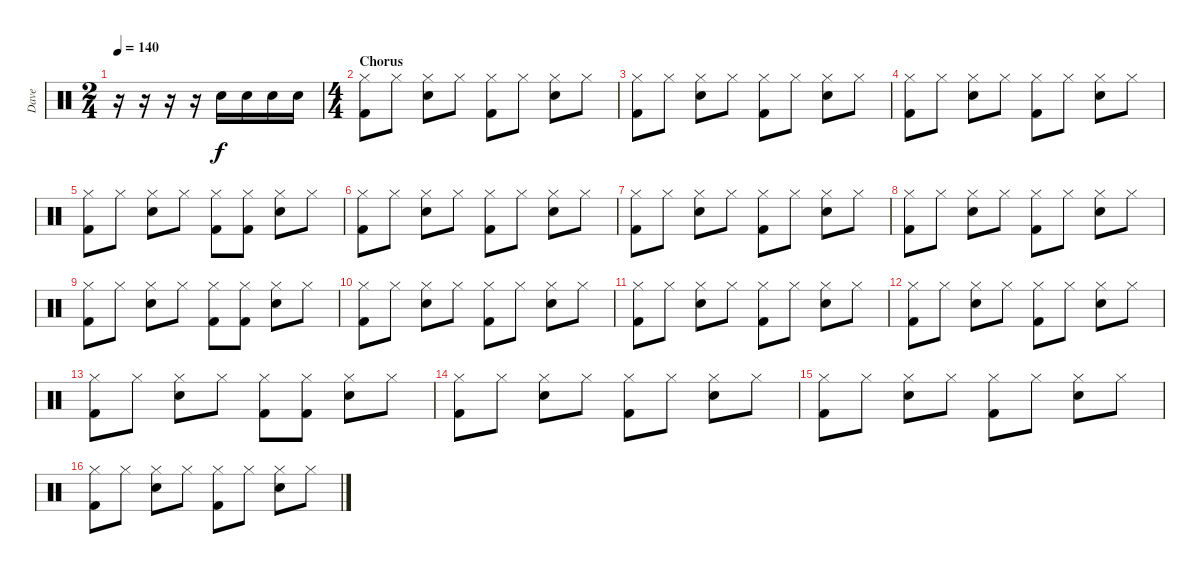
\track ("Dave" "Dave") {instrument percussion}
\staff {score}
\articulation defaults
\ts (2 4)
\tempo 140
\clef neutral
\ks c
r.16{dy f} r.16 r.16 r.16 "Snare (hit) 2".16 "Snare (hit) 2".16 "Snare (hit) 2".16 "Snare (hit) 2".16 |
\ts (4 4)
\section ("" "Chorus")
("Hi-Hat (closed)" "Kick (hit) 2").8 "Hi-Hat (closed)".8 ("Hi-Hat (closed)" "Electric Snare (hit)").8 "Hi-Hat (closed)".8 ("Hi-Hat (closed)" "Kick (hit) 2").8 "Hi-Hat (closed)".8 ("Hi-Hat (closed)" "Electric Snare (hit)").8 "Hi-Hat (closed)".8 |
("Hi-Hat (closed)" "Kick (hit) 2").8 "Hi-Hat (closed)".8 ("Hi-Hat (closed)" "Electric Snare (hit)").8 "Hi-Hat (closed)".8 ("Hi-Hat (closed)" "Kick (hit) 2").8 "Hi-Hat (closed)".8 ("Hi-Hat (closed)" "Electric Snare (hit)").8 "Hi-Hat (closed)".8 |
("Hi-Hat (closed)" "Kick (hit) 2").8 "Hi-Hat (closed)".8 ("Hi-Hat (closed)" "Electric Snare (hit)").8 "Hi-Hat (closed)".8 ("Hi-Hat (closed)" "Kick (hit) 2").8 "Hi-Hat (closed)".8 ("Hi-Hat (closed)" "Electric Snare (hit)").8 "Hi-Hat (closed)".8 |
("Hi-Hat (closed)" "Kick (hit) 2").8 "Hi-Hat (closed)".8 ("Hi-Hat (closed)" "Electric Snare (hit)").8 "Hi-Hat (closed)".8 ("Hi-Hat (closed)" "Kick (hit) 2").8 ("Hi-Hat (closed)" "Kick (hit) 2").8 ("Hi-Hat (closed)" "Electric Snare (hit)").8 "Hi-Hat (closed)".8 |
("Hi-Hat (closed)" "Kick (hit) 2").8 "Hi-Hat (closed)".8 ("Hi-Hat (closed)" "Electric Snare (hit)").8 "Hi-Hat (closed)".8 ("Hi-Hat (closed)" "Kick (hit) 2").8 "Hi-Hat (closed)".8 ("Hi-Hat (closed)" "Electric Snare (hit)").8 "Hi-Hat (closed)".8 |
("Hi-Hat (closed)" "Kick (hit) 2").8 "Hi-Hat (closed)".8 ("Hi-Hat (closed)" "Electric Snare (hit)").8 "Hi-Hat (closed)".8 ("Hi-Hat (closed)" "Kick (hit) 2").8 "Hi-Hat (closed)".8 ("Hi-Hat (closed)" "Electric Snare (hit)").8 "Hi-Hat (closed)".8 |
("Hi-Hat (closed)" "Kick (hit) 2").8 "Hi-Hat (closed)".8 ("Hi-Hat (closed)" "Electric Snare (hit)").8 "Hi-Hat (closed)".8 ("Hi-Hat (closed)" "Kick (hit) 2").8 "Hi-Hat (closed)".8 ("Hi-Hat (closed)" "Electric Snare (hit)").8 "Hi-Hat (closed)".8 |
("Hi-Hat (closed)" "Kick (hit) 2").8 "Hi-Hat (closed)".8 ("Hi-Hat (closed)" "Electric Snare (hit)").8 "Hi-Hat (closed)".8 ("Hi-Hat (closed)" "Kick (hit) 2").8 ("Hi-Hat (closed)" "Kick (hit) 2").8 ("Hi-Hat (closed)" "Electric Snare (hit)").8 "Hi-Hat (closed)".8 |
("Hi-Hat (closed)" "Kick (hit) 2").8 "Hi-Hat (closed)".8 ("Hi-Hat (closed)" "Electric Snare (hit)").8 "Hi-Hat (closed)".8 ("Hi-Hat (closed)" "Kick (hit) 2").8 "Hi-Hat (closed)".8 ("Hi-Hat (closed)" "Electric Snare (hit)").8 "Hi-Hat (closed)".8 |
("Hi-Hat (closed)" "Kick (hit) 2").8 "Hi-Hat (closed)".8 ("Hi-Hat (closed)" "Electric Snare (hit)").8 "Hi-Hat (closed)".8 ("Hi-Hat (closed)" "Kick (hit) 2").8 "Hi-Hat (closed)".8 ("Hi-Hat (closed)" "Electric Snare (hit)").8 "Hi-Hat (closed)".8 |
("Hi-Hat (closed)" "Kick (hit) 2").8 "Hi-Hat (closed)".8 ("Hi-Hat (closed)" "Electric Snare (hit)").8 "Hi-Hat (closed)".8 ("Hi-Hat (closed)" "Kick (hit) 2").8 "Hi-Hat (closed)".8 ("Hi-Hat (closed)" "Electric Snare (hit)").8 "Hi-Hat (closed)".8 |
("Hi-Hat (closed)" "Kick (hit) 2").8 "Hi-Hat (closed)".8 ("Hi-Hat (closed)" "Electric Snare (hit)").8 "Hi-Hat (closed)".8 ("Hi-Hat (closed)" "Kick (hit) 2").8 ("Hi-Hat (closed)" "Kick (hit) 2").8 ("Hi-Hat (closed)" "Electric Snare (hit)").8 "Hi-Hat (closed)".8 |
("Hi-Hat (closed)" "Kick (hit) 2").8 "Hi-Hat (closed)".8 ("Hi-Hat (closed)" "Electric Snare (hit)").8 "Hi-Hat (closed)".8 ("Hi-Hat (closed)" "Kick (hit) 2").8 "Hi-Hat (closed)".8 ("Hi-Hat (closed)" "Electric Snare (hit)").8 "Hi-Hat (closed)".8 |
("Hi-Hat (closed)" "Kick (hit) 2").8 "Hi-Hat (closed)".8 ("Hi-Hat (closed)" "Electric Snare (hit)").8 "Hi-Hat (closed)".8 ("Hi-Hat (closed)" "Kick (hit) 2").8 "Hi-Hat (closed)".8 ("Hi-Hat (closed)" "Electric Snare (hit)").8 "Hi-Hat (closed)".8 |
("Hi-Hat (closed)" "Kick (hit) 2").8 "Hi-Hat (closed)".8 ("Hi-Hat (closed)" "Electric Snare (hit)").8 "Hi-Hat (closed)".8 ("Hi-Hat (closed)" "Kick (hit) 2").8 "Hi-Hat (closed)".8 ("Hi-Hat (closed)" "Electric Snare (hit)").8 "Hi-Hat (closed)".8
